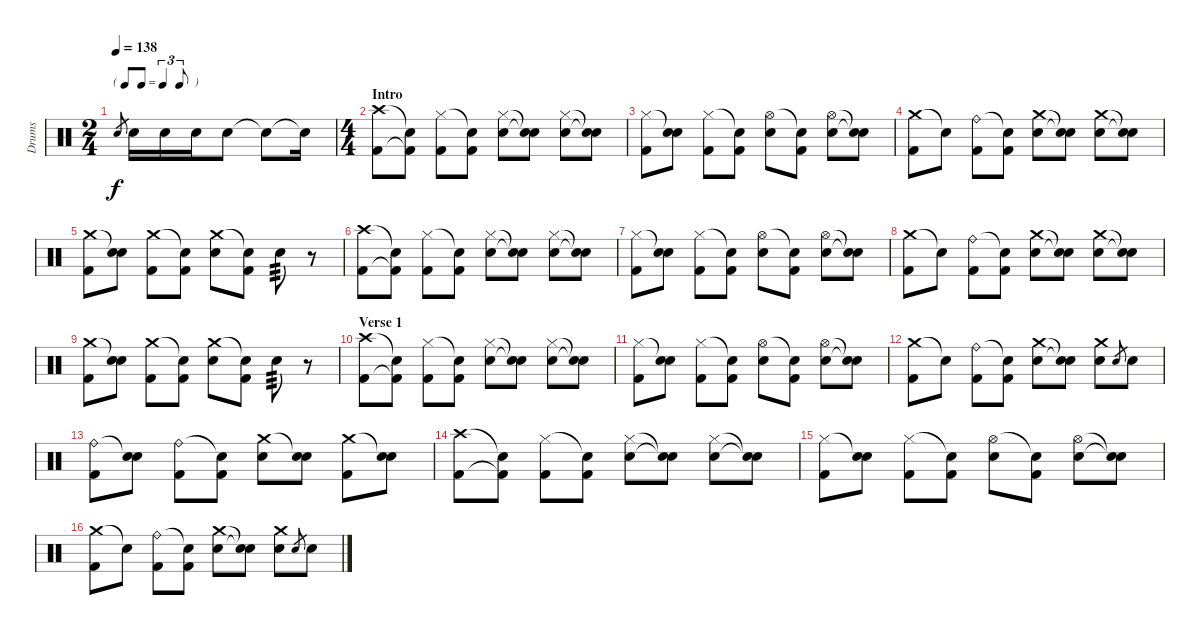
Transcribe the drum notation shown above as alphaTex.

\track ("Drums" "Drums") {instrument percussion}
\staff {score}
\articulation defaults
\ts (2 4)
\tf triplet8th
\tempo 138
\clef neutral
\ks c "Electric Snare (hit)".8{gr dy f} "Electric Snare (hit)".16 "Electric Snare (hit)".16 "Electric Snare (hit)".16 "Electric Snare (hit)".8 "Snare (hit)"{t}.8 "Snare (hit)"{t}.16
|
\ts (4 4)
\section ("" "Intro")
("Crash high (hit)" "Kick (hit) 2").8 ("Snare (hit)"{t} "Kick (hit) 2"{t}).8 ("Hi-Hat (closed)" "Kick (hit) 2").8 ("Snare (hit)"{t} "Kick (hit) 2").8 ("Hi-Hat (closed)" "Electric Snare (hit)").8 ("Snare (hit)"{t} "Snare (hit)"{t}).8 ("Hi-Hat (closed)" "Electric Snare (hit)").8 ("Snare (hit)"{t} "Snare (hit)"{t}).8 |
("Hi-Hat (closed)" "Kick (hit) 2").8 ("Snare (hit)"{t} "Electric Snare (hit)").8 ("Hi-Hat (closed)" "Kick (hit) 2").8 ("Snare (hit)"{t} "Kick (hit) 2").8 ("Hi-Hat (open)" "Electric Snare (hit)").8 ("Snare (hit)"{t} "Kick (hit) 2").8 ("Hi-Hat (open)" "Electric Snare (hit)").8 ("Snare (hit)"{t} "Snare (hit)"{t}).8 |
("Crash medium (hit)" "Kick (hit) 2").8 "Snare (hit)"{t}.8 ("Ride (bell)" "Kick (hit) 2").8 ("Snare (hit)"{t} "Kick (hit) 2").8 ("Crash medium (hit)" "Electric Snare (hit)").8 ("Snare (hit)"{t} "Snare (hit)"{t}).8 ("Crash medium (hit)" "Electric Snare (hit)").8 ("Snare (hit)"{t} "Snare (hit)"{t}).8 |
("Crash medium (hit)" "Kick (hit) 2").8 ("Snare (hit)"{t} "Electric Snare (hit)").8 ("Crash medium (hit)" "Kick (hit) 2").8 ("Snare (hit)"{t} "Kick (hit) 2").8 ("Crash medium (hit)" "Electric Snare (hit)").8 ("Snare (hit)"{t} "Kick (hit) 2").8 "Electric Snare (hit)".8{tp 3} r.8 |
("Crash high (hit)" "Kick (hit) 2").8 ("Snare (hit)"{t} "Kick (hit) 2"{t}).8 ("Hi-Hat (closed)" "Kick (hit) 2").8 ("Snare (hit)"{t} "Kick (hit) 2").8 ("Hi-Hat (closed)" "Electric Snare (hit)").8 ("Snare (hit)"{t} "Snare (hit)"{t}).8 ("Hi-Hat (closed)" "Electric Snare (hit)").8 ("Snare (hit)"{t} "Snare (hit)"{t}).8 |
("Hi-Hat (closed)" "Kick (hit) 2").8 ("Snare (hit)"{t} "Electric Snare (hit)").8 ("Hi-Hat (closed)" "Kick (hit) 2").8 ("Snare (hit)"{t} "Kick (hit) 2").8 ("Hi-Hat (open)" "Electric Snare (hit)").8 ("Snare (hit)"{t} "Kick (hit) 2").8 ("Hi-Hat (open)" "Electric Snare (hit)").8 ("Snare (hit)"{t} "Snare (hit)"{t}).8 |
("Crash medium (hit)" "Kick (hit) 2").8 "Snare (hit)"{t}.8 ("Ride (bell)" "Kick (hit) 2").8 ("Snare (hit)"{t} "Kick (hit) 2").8 ("Crash medium (hit)" "Electric Snare (hit)").8 ("Snare (hit)"{t} "Snare (hit)"{t}).8 ("Crash medium (hit)" "Electric Snare (hit)").8 ("Snare (hit)"{t} "Snare (hit)"{t}).8 |
("Crash medium (hit)" "Kick (hit) 2").8 ("Snare (hit)"{t} "Electric Snare (hit)").8 ("Crash medium (hit)" "Kick (hit) 2").8 ("Snare (hit)"{t} "Kick (hit) 2").8 ("Crash medium (hit)" "Electric Snare (hit)").8 ("Snare (hit)"{t} "Kick (hit) 2").8 "Electric Snare (hit)".8{tp 3} r.8 |
\section ("" "Verse 1")
("Crash high (hit)" "Kick (hit) 2").8 ("Snare (hit)"{t} "Kick (hit) 2"{t}).8 ("Hi-Hat (closed)" "Kick (hit) 2").8 ("Snare (hit)"{t} "Kick (hit) 2").8 ("Hi-Hat (closed)" "Electric Snare (hit)").8 ("Snare (hit)"{t} "Snare (hit)"{t}).8 ("Hi-Hat (closed)" "Electric Snare (hit)").8 ("Snare (hit)"{t} "Snare (hit)"{t}).8 |
("Hi-Hat (closed)" "Kick (hit) 2").8 ("Snare (hit)"{t} "Electric Snare (hit)").8 ("Hi-Hat (closed)" "Kick (hit) 2").8 ("Snare (hit)"{t} "Kick (hit) 2").8 ("Hi-Hat (open)" "Electric Snare (hit)").8 ("Snare (hit)"{t} "Kick (hit) 2").8 ("Hi-Hat (open)" "Electric Snare (hit)").8 ("Snare (hit)"{t} "Snare (hit)"{t}).8 |
("Crash medium (hit)" "Kick (hit) 2").8 "Snare (hit)"{t}.8 ("Ride (bell)" "Kick (hit) 2").8 ("Snare (hit)"{t} "Kick (hit) 2").8 ("Crash medium (hit)" "Electric Snare (hit)").8 ("Snare (hit)"{t} "Snare (hit)"{t}).8 ("Crash medium (hit)" "Electric Snare (hit)").8 "Electric Snare (hit)".8{gr} "Electric Snare (hit)".8 |
("Ride (bell)" "Kick (hit) 2").8 ("Snare (hit)"{t} "Electric Snare (hit)").8 ("Ride (bell)" "Kick (hit) 2").8 ("Snare (hit)"{t} "Kick (hit) 2").8 ("Crash medium (hit)" "Electric Snare (hit)").8 ("Snare (hit)"{t} "Electric Snare (hit)").8 ("Crash medium (hit)" "Kick (hit) 2").8 ("Snare (hit)"{t} "Electric Snare (hit)").8 |
("Crash high (hit)" "Kick (hit) 2").8 ("Snare (hit)"{t} "Kick (hit) 2"{t}).8 ("Hi-Hat (closed)" "Kick (hit) 2").8 ("Snare (hit)"{t} "Kick (hit) 2").8 ("Hi-Hat (closed)" "Electric Snare (hit)").8 ("Snare (hit)"{t} "Snare (hit)"{t}).8 ("Hi-Hat (closed)" "Electric Snare (hit)").8 ("Snare (hit)"{t} "Snare (hit)"{t}).8 |
("Hi-Hat (closed)" "Kick (hit) 2").8 ("Snare (hit)"{t} "Electric Snare (hit)").8 ("Hi-Hat (closed)" "Kick (hit) 2").8 ("Snare (hit)"{t} "Kick (hit) 2").8 ("Hi-Hat (open)" "Electric Snare (hit)").8 ("Snare (hit)"{t} "Kick (hit) 2").8 ("Hi-Hat (open)" "Electric Snare (hit)").8 ("Snare (hit)"{t} "Snare (hit)"{t}).8 |
("Crash medium (hit)" "Kick (hit) 2").8 "Snare (hit)"{t}.8 ("Ride (bell)" "Kick (hit) 2").8 ("Snare (hit)"{t} "Kick (hit) 2").8 ("Crash medium (hit)" "Electric Snare (hit)").8 ("Snare (hit)"{t} "Snare (hit)"{t}).8 ("Crash medium (hit)" "Electric Snare (hit)").8 "Electric Snare (hit)".8{gr} "Electric Snare (hit)".8
